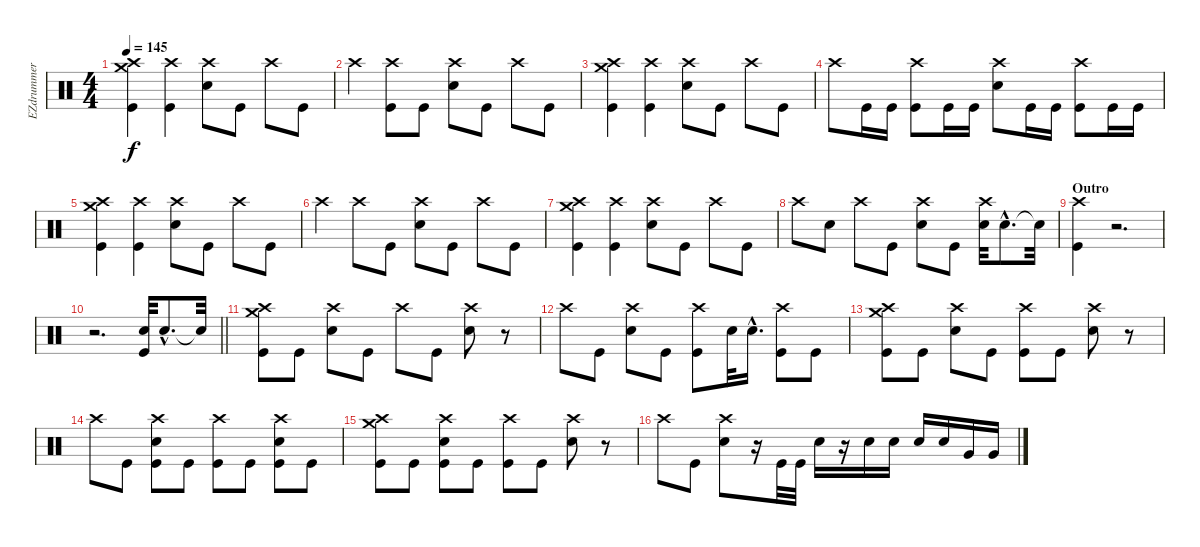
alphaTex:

\track ("EZdrummer 01" "EZdrummer ") {instrument percussion}
\staff {score}
\articulation defaults
\ts (4 4)
\tempo 145
\clef neutral
\ks c
("Crash high (hit)" "Crash medium (hit)" "Kick (hit)").4{dy f} ("Crash high (hit)" "Kick (hit)").4 ("Snare (hit) 2" "Crash high (hit)").8 "Kick (hit)".8 "Crash high (hit)".8 "Kick (hit)".8 |
"Crash high (hit)".4 ("Crash high (hit)" "Kick (hit)").8 "Kick (hit)".8 ("Snare (hit) 2" "Crash high (hit)").8 "Kick (hit)".8 "Crash high (hit)".8 "Kick (hit)".8 |
("Crash high (hit)" "Crash medium (hit)" "Kick (hit)").4 ("Crash high (hit)" "Kick (hit)").4 ("Snare (hit) 2" "Crash high (hit)").8 "Kick (hit)".8 "Crash high (hit)".8 "Kick (hit)".8 |
"Crash high (hit)".8 "Kick (hit)".16 "Kick (hit)".16 ("Crash high (hit)" "Kick (hit)").8 "Kick (hit)".16 "Kick (hit)".16 ("Snare (hit) 2" "Crash high (hit)").8 "Kick (hit)".16 "Kick (hit)".16 ("Crash high (hit)" "Kick (hit)").8 "Kick (hit)".16 "Kick (hit)".16 |
("Crash high (hit)" "Crash medium (hit)" "Kick (hit)").4 ("Crash high (hit)" "Kick (hit)").4 ("Snare (hit) 2" "Crash high (hit)").8 "Kick (hit)".8 "Crash high (hit)".8 "Kick (hit)".8 |
"Crash high (hit)".4 "Crash high (hit)".8 "Kick (hit)".8 ("Snare (hit) 2" "Crash high (hit)").8 "Kick (hit)".8 "Crash high (hit)".8 "Kick (hit)".8 |
("Crash high (hit)" "Crash medium (hit)" "Kick (hit)").4 ("Crash high (hit)" "Kick (hit)").4 ("Snare (hit) 2" "Crash high (hit)").8 "Kick (hit)".8 "Crash high (hit)".8 "Kick (hit)".8 |
"Crash high (hit)".8 "Snare (hit) 2".8 "Crash high (hit)".8 "Kick (hit)".8 ("Snare (hit) 2" "Crash high (hit)").8 "Kick (hit)".8 ("Snare (hit) 2" "Crash high (hit)").32 "Electric Snare (hit)"{hac}.8{d} "Snare (hit)"{t}.32 |
\section ("" "Outro")
("Kick (hit)" "Crash high (hit)").4 r.2{d} |
\barLineRight lightlight
r.2{d} ("Kick (hit)" "Snare (hit) 2").32 "Electric Snare (hit)"{hac}.8{d} "Snare (hit)"{t}.32 |
("Kick (hit)" "Crash high (hit)" "Crash medium (hit)").8 "Kick (hit)".8 ("Snare (hit) 2" "Crash high (hit)").8 "Kick (hit)".8 "Crash high (hit)".8 "Kick (hit)".8 ("Snare (hit) 2" "Crash high (hit)").8 r.8 |
"Crash high (hit)".8 "Kick (hit)".8 ("Snare (hit) 2" "Crash high (hit)").8 "Kick (hit)".8 ("Kick (hit)" "Crash high (hit)").8 "Snare (hit) 2".32 "Electric Snare (hit)"{hac}.16{d} ("Kick (hit)" "Crash high (hit)").8 "Kick (hit)".8 |
("Kick (hit)" "Crash high (hit)" "Crash medium (hit)").8 "Kick (hit)".8 ("Snare (hit) 2" "Crash high (hit)").8 "Kick (hit)".8 ("Crash high (hit)" "Kick (hit)").8 "Kick (hit)".8 ("Snare (hit) 2" "Crash high (hit)").8 r.8 |
"Crash high (hit)".8 "Kick (hit)".8 ("Kick (hit)" "Snare (hit) 2" "Crash high (hit)").8 "Kick (hit)".8 ("Kick (hit)" "Crash high (hit)").8 "Kick (hit)".8 ("Kick (hit)" "Crash high (hit)" "Snare (hit) 2").8 "Kick (hit)".8 |
("Kick (hit)" "Crash high (hit)" "Crash medium (hit)").8 "Kick (hit)".8 ("Kick (hit)" "Snare (hit) 2" "Crash high (hit)").8 "Kick (hit)".8 ("Crash high (hit)" "Kick (hit)").8 "Kick (hit)".8 ("Snare (hit) 2" "Crash high (hit)").8 r.8 |
"Crash high (hit)".8 "Kick (hit)".8 ("Snare (hit) 2" "Crash high (hit)").8 r.16 "Kick (hit)".32 "Kick (hit)".32 "Snare (hit) 2".16 r.16 "Snare (hit) 2".16 "Snare (hit) 2".16 "Snare (hit) 2".16 "Snare (hit) 2".16 "Very Low Tom (hit)".16 "Very Low Tom (hit)".16
